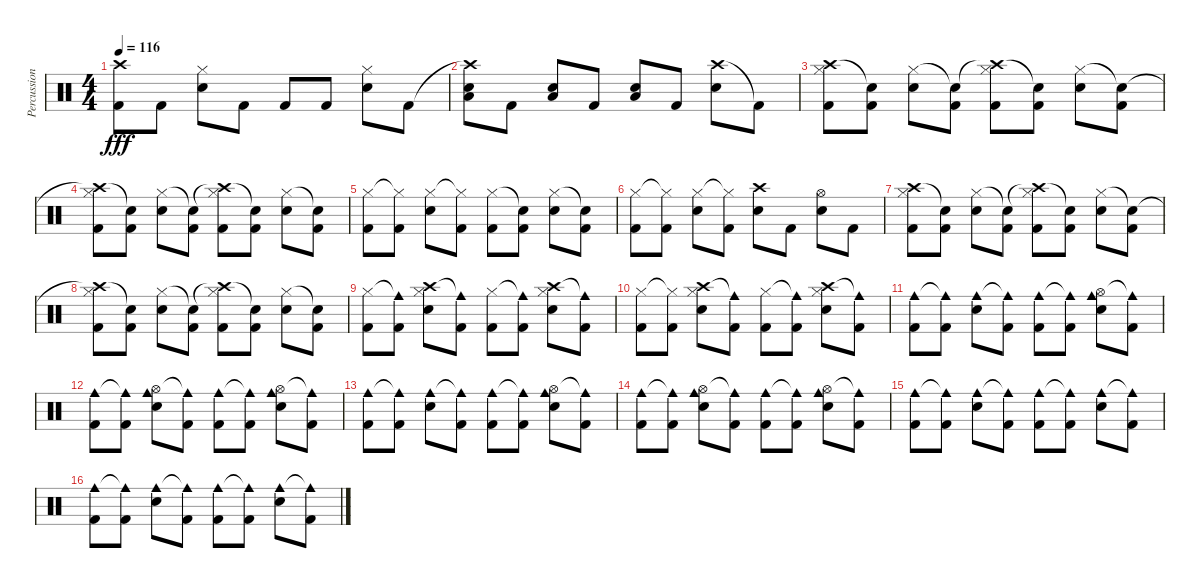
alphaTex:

\track ("Percussion" "Percussion") {instrument percussion}
\staff {score}
\articulation defaults
\ts (4 4)
\tempo 116
\clef neutral
\ks c
("Crash high (hit)" "Kick (hit) 2").8{dy fff} "Kick (hit) 2".8 ("Hi-Hat (closed)" "Electric Snare (hit)").8 "Kick (hit) 2".8 "Kick (hit) 2".8 "Kick (hit) 2".8 ("Hi-Hat (closed)" "Electric Snare (hit)").8 "Kick (hit) 2".8 |
("Crash high (hit)"{t} "Electric Snare (hit)" "Low Floor Tom (hit)").8 "Kick (hit) 2".8 ("Electric Snare (hit)" "Low Floor Tom (hit)").8 "Kick (hit) 2".8 ("Electric Snare (hit)" "Low Floor Tom (hit)").8 "Kick (hit) 2".8 ("Crash high (hit)" "Electric Snare (hit)").8 "Kick (hit) 2"{t}.8 |
("Crash high (hit)" "Hi-Hat (closed)" "Kick (hit) 2").8 ("Snare (hit)"{t} "Kick (hit) 2").8 ("Hi-Hat (closed)" "Electric Snare (hit)").8 ("Snare (hit)"{t} "Kick (hit) 2").8 ("Crash high (hit)"{t} "Hi-Hat (closed)" "Kick (hit) 2").8 ("Snare (hit)"{t} "Kick (hit) 2").8 ("Hi-Hat (closed)" "Electric Snare (hit)").8 ("Snare (hit)"{t} "Kick (hit) 2").8 |
("Crash high (hit)"{t} "Hi-Hat (closed)" "Kick (hit) 2").8 ("Snare (hit)"{t} "Kick (hit) 2").8 ("Hi-Hat (closed)" "Electric Snare (hit)").8 ("Snare (hit)"{t} "Kick (hit) 2").8 ("Crash high (hit)"{t} "Hi-Hat (closed)" "Kick (hit) 2").8 ("Snare (hit)"{t} "Kick (hit) 2").8 ("Hi-Hat (closed)" "Electric Snare (hit)").8 ("Snare (hit)"{t} "Kick (hit) 2").8 |
("Hi-Hat (closed)" "Kick (hit) 2").8 ("Hi-Hat (closed)"{t} "Kick (hit) 2").8 ("Hi-Hat (closed)" "Electric Snare (hit)").8 ("Hi-Hat (closed)"{t} "Kick (hit) 2").8 ("Hi-Hat (closed)" "Kick (hit) 2").8 ("Snare (hit)"{t} "Kick (hit) 2").8 ("Hi-Hat (closed)" "Electric Snare (hit)").8 ("Snare (hit)"{t} "Kick (hit) 2").8 |
("Hi-Hat (closed)" "Kick (hit) 2").8 ("Hi-Hat (closed)"{t} "Kick (hit) 2").8 ("Hi-Hat (closed)" "Electric Snare (hit)").8 ("Hi-Hat (closed)"{t} "Kick (hit) 2").8 ("Crash high (hit)" "Electric Snare (hit)").8 "Kick (hit) 2".8 ("Hi-Hat (open)" "Electric Snare (hit)").8 "Kick (hit) 2".8 |
("Crash high (hit)" "Hi-Hat (closed)" "Kick (hit) 2").8 ("Snare (hit)"{t} "Kick (hit) 2").8 ("Hi-Hat (closed)" "Electric Snare (hit)").8 ("Snare (hit)"{t} "Kick (hit) 2").8 ("Crash high (hit)"{t} "Hi-Hat (closed)" "Kick (hit) 2").8 ("Snare (hit)"{t} "Kick (hit) 2").8 ("Hi-Hat (closed)" "Electric Snare (hit)").8 ("Snare (hit)"{t} "Kick (hit) 2").8 |
("Crash high (hit)"{t} "Hi-Hat (closed)" "Kick (hit) 2").8 ("Snare (hit)"{t} "Kick (hit) 2").8 ("Hi-Hat (closed)" "Electric Snare (hit)").8 ("Snare (hit)"{t} "Kick (hit) 2").8 ("Crash high (hit)"{t} "Hi-Hat (closed)" "Kick (hit) 2").8 ("Snare (hit)"{t} "Kick (hit) 2").8 ("Hi-Hat (closed)" "Electric Snare (hit)").8 ("Snare (hit)"{t} "Kick (hit) 2").8 |
("Hi-Hat (closed)" "Kick (hit) 2").8 ("Cowbell medium (hit)"{t} "Kick (hit) 2").8 ("Crash high (hit)" "Hi-Hat (closed)" "Electric Snare (hit)").8 ("Cowbell medium (hit)"{t} "Kick (hit) 2").8 ("Hi-Hat (closed)" "Kick (hit) 2").8 ("Cowbell medium (hit)"{t} "Kick (hit) 2").8 ("Crash high (hit)" "Hi-Hat (closed)" "Electric Snare (hit)").8 ("Cowbell medium (hit)"{t} "Kick (hit) 2").8 |
("Hi-Hat (closed)" "Kick (hit) 2").8 ("Hi-Hat (closed)"{t} "Kick (hit) 2").8 ("Crash high (hit)" "Hi-Hat (closed)" "Electric Snare (hit)").8 ("Cowbell medium (hit)"{t} "Kick (hit) 2").8 ("Hi-Hat (closed)" "Kick (hit) 2").8 ("Cowbell medium (hit)"{t} "Kick (hit) 2").8 ("Crash high (hit)" "Hi-Hat (closed)" "Electric Snare (hit)").8 ("Cowbell medium (hit)"{t} "Kick (hit) 2").8 |
("Cowbell medium (hit)" "Kick (hit) 2").8 ("Cowbell medium (hit)"{t} "Kick (hit) 2").8 ("Cowbell medium (hit)" "Electric Snare (hit)").8 ("Cowbell medium (hit)"{t} "Kick (hit) 2").8 ("Cowbell medium (hit)" "Kick (hit) 2").8 ("Cowbell medium (hit)"{t} "Kick (hit) 2").8 ("Hi-Hat (open)" "Cowbell medium (hit)" "Electric Snare (hit)").8 ("Cowbell medium (hit)"{t} "Kick (hit) 2").8 |
("Cowbell medium (hit)" "Kick (hit) 2").8 ("Cowbell medium (hit)"{t} "Kick (hit) 2").8 ("Hi-Hat (open)" "Cowbell medium (hit)" "Electric Snare (hit)").8 ("Cowbell medium (hit)"{t} "Kick (hit) 2").8 ("Cowbell medium (hit)" "Kick (hit) 2").8 ("Cowbell medium (hit)"{t} "Kick (hit) 2").8 ("Hi-Hat (open)" "Cowbell medium (hit)" "Electric Snare (hit)").8 ("Cowbell medium (hit)"{t} "Kick (hit) 2").8 |
("Cowbell medium (hit)" "Kick (hit) 2").8 ("Cowbell medium (hit)"{t} "Kick (hit) 2").8 ("Cowbell medium (hit)" "Electric Snare (hit)").8 ("Cowbell medium (hit)"{t} "Kick (hit) 2").8 ("Cowbell medium (hit)" "Kick (hit) 2").8 ("Cowbell medium (hit)"{t} "Kick (hit) 2").8 ("Hi-Hat (open)" "Cowbell medium (hit)" "Electric Snare (hit)").8 ("Cowbell medium (hit)"{t} "Kick (hit) 2").8 |
("Cowbell medium (hit)" "Kick (hit) 2").8 ("Cowbell medium (hit)"{t} "Kick (hit) 2").8 ("Hi-Hat (open)" "Cowbell medium (hit)" "Electric Snare (hit)").8 ("Cowbell medium (hit)"{t} "Kick (hit) 2").8 ("Cowbell medium (hit)" "Kick (hit) 2").8 ("Cowbell medium (hit)"{t} "Kick (hit) 2").8 ("Hi-Hat (open)" "Cowbell medium (hit)" "Electric Snare (hit)").8 ("Cowbell medium (hit)"{t} "Kick (hit) 2").8 |
("Cowbell medium (hit)" "Kick (hit) 2").8 ("Cowbell medium (hit)"{t} "Kick (hit) 2").8 ("Cowbell medium (hit)" "Electric Snare (hit)").8 ("Cowbell medium (hit)"{t} "Kick (hit) 2").8 ("Cowbell medium (hit)" "Kick (hit) 2").8 ("Cowbell medium (hit)"{t} "Kick (hit) 2").8 ("Cowbell medium (hit)" "Electric Snare (hit)").8 ("Cowbell medium (hit)"{t} "Kick (hit) 2").8 |
("Cowbell medium (hit)" "Kick (hit) 2").8 ("Cowbell medium (hit)"{t} "Kick (hit) 2").8 ("Cowbell medium (hit)" "Electric Snare (hit)").8 ("Cowbell medium (hit)"{t} "Kick (hit) 2").8 ("Cowbell medium (hit)" "Kick (hit) 2").8 ("Cowbell medium (hit)"{t} "Kick (hit) 2").8 ("Cowbell medium (hit)" "Electric Snare (hit)").8 ("Cowbell medium (hit)"{t} "Kick (hit) 2").8
